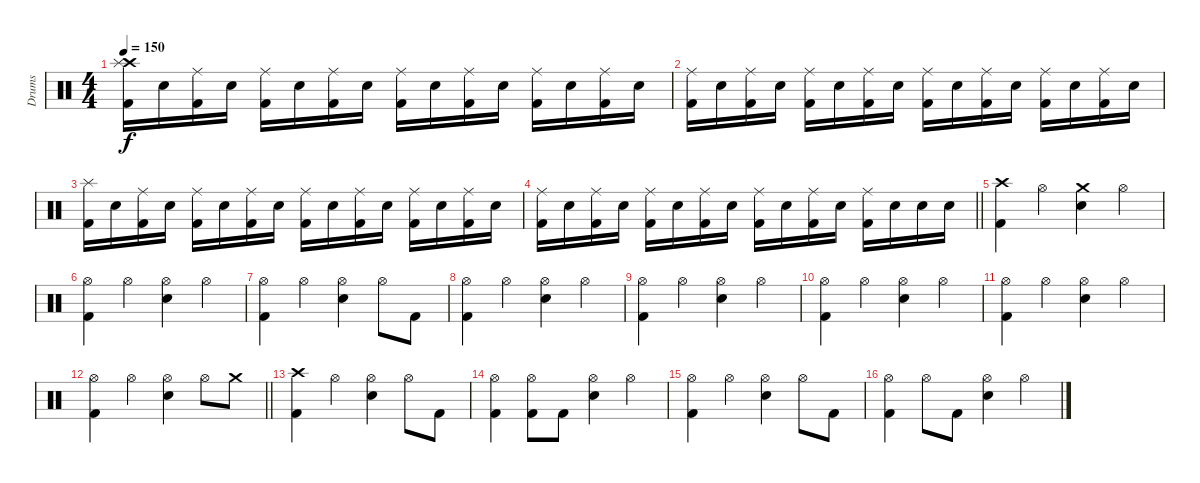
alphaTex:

\track ("Drums" "Drums") {instrument percussion}
\staff {score}
\articulation defaults
\ts (4 4)
\tempo 150
\clef neutral
\ks c
("Crash high (hit)" "Splash (hit)" "Kick (hit) 2").16{dy f} "Electric Snare (hit)".16 ("Ride (middle)" "Kick (hit) 2").16 "Electric Snare (hit)".16 ("Ride (middle)" "Kick (hit) 2").16 "Electric Snare (hit)".16 ("Ride (middle)" "Kick (hit) 2").16 "Electric Snare (hit)".16 ("Ride (middle)" "Kick (hit) 2").16 "Electric Snare (hit)".16 ("Ride (middle)" "Kick (hit) 2").16 "Electric Snare (hit)".16 ("Ride (middle)" "Kick (hit) 2").16 "Electric Snare (hit)".16 ("Ride (middle)" "Kick (hit) 2").16 "Electric Snare (hit)".16 |
("Ride (middle)" "Kick (hit) 2").16 "Electric Snare (hit)".16 ("Ride (middle)" "Kick (hit) 2").16 "Electric Snare (hit)".16 ("Ride (middle)" "Kick (hit) 2").16 "Electric Snare (hit)".16 ("Ride (middle)" "Kick (hit) 2").16 "Electric Snare (hit)".16 ("Ride (middle)" "Kick (hit) 2").16 "Electric Snare (hit)".16 ("Ride (middle)" "Kick (hit) 2").16 "Electric Snare (hit)".16 ("Ride (middle)" "Kick (hit) 2").16 "Electric Snare (hit)".16 ("Ride (middle)" "Kick (hit) 2").16 "Electric Snare (hit)".16 |
("Splash (hit)" "Kick (hit) 2").16 "Electric Snare (hit)".16 ("Ride (middle)" "Kick (hit) 2").16 "Electric Snare (hit)".16 ("Ride (middle)" "Kick (hit) 2").16 "Electric Snare (hit)".16 ("Ride (middle)" "Kick (hit) 2").16 "Electric Snare (hit)".16 ("Ride (middle)" "Kick (hit) 2").16 "Electric Snare (hit)".16 ("Ride (middle)" "Kick (hit) 2").16 "Electric Snare (hit)".16 ("Ride (middle)" "Kick (hit) 2").16 "Electric Snare (hit)".16 ("Ride (middle)" "Kick (hit) 2").16 "Electric Snare (hit)".16 |
\barLineRight lightlight
("Ride (middle)" "Kick (hit) 2").16 "Electric Snare (hit)".16 ("Ride (middle)" "Kick (hit) 2").16 "Electric Snare (hit)".16 ("Ride (middle)" "Kick (hit) 2").16 "Electric Snare (hit)".16 ("Ride (middle)" "Kick (hit) 2").16 "Electric Snare (hit)".16 ("Ride (middle)" "Kick (hit) 2").16 "Electric Snare (hit)".16 ("Ride (middle)" "Kick (hit) 2").16 "Electric Snare (hit)".16 ("Ride (middle)" "Kick (hit) 2").16 "Electric Snare (hit)".16 "Electric Snare (hit)".16 "Electric Snare (hit)".16 |
\section ("" "")
("Crash high (hit)" "Kick (hit) 2").4 "Hi-Hat (open)".4 ("Crash medium (hit)" "Electric Snare (hit)").4 "Hi-Hat (open)".4 |
("Hi-Hat (open)" "Kick (hit) 2").4 "Hi-Hat (open)".4 ("Hi-Hat (open)" "Electric Snare (hit)").4 "Hi-Hat (open)".4 |
("Hi-Hat (open)" "Kick (hit) 2").4 "Hi-Hat (open)".4 ("Hi-Hat (open)" "Electric Snare (hit)").4 "Hi-Hat (open)".8 "Kick (hit) 2".8 |
("Hi-Hat (open)" "Kick (hit) 2").4 "Hi-Hat (open)".4 ("Hi-Hat (open)" "Electric Snare (hit)").4 "Hi-Hat (open)".4 |
("Hi-Hat (open)" "Kick (hit) 2").4 "Hi-Hat (open)".4 ("Hi-Hat (open)" "Electric Snare (hit)").4 "Hi-Hat (open)".4 |
("Hi-Hat (open)" "Kick (hit) 2").4 "Hi-Hat (open)".4 ("Hi-Hat (open)" "Electric Snare (hit)").4 "Hi-Hat (open)".4 |
("Hi-Hat (open)" "Kick (hit) 2").4 "Hi-Hat (open)".4 ("Hi-Hat (open)" "Electric Snare (hit)").4 "Hi-Hat (open)".4 |
\barLineRight lightlight
("Hi-Hat (open)" "Kick (hit) 2").4 "Hi-Hat (open)".4 ("Hi-Hat (open)" "Electric Snare (hit)").4 "Hi-Hat (open)".8 "Crash medium (hit)".8 |
\section ("" "")
("Crash high (hit)" "Kick (hit) 2").4 "Hi-Hat (open)".4 ("Hi-Hat (open)" "Electric Snare (hit)").4 "Hi-Hat (open)".8 "Kick (hit) 2".8 |
("Hi-Hat (open)" "Kick (hit) 2").4 ("Hi-Hat (open)" "Kick (hit) 2").8 "Kick (hit) 2".8 ("Hi-Hat (open)" "Electric Snare (hit)").4 "Hi-Hat (open)".4 |
("Hi-Hat (open)" "Kick (hit) 2").4 "Hi-Hat (open)".4 ("Hi-Hat (open)" "Electric Snare (hit)").4 "Hi-Hat (open)".8 "Kick (hit) 2".8 |
("Hi-Hat (open)" "Kick (hit) 2").4 "Hi-Hat (open)".8 "Kick (hit) 2".8 ("Hi-Hat (open)" "Electric Snare (hit)").4 "Hi-Hat (open)".4
